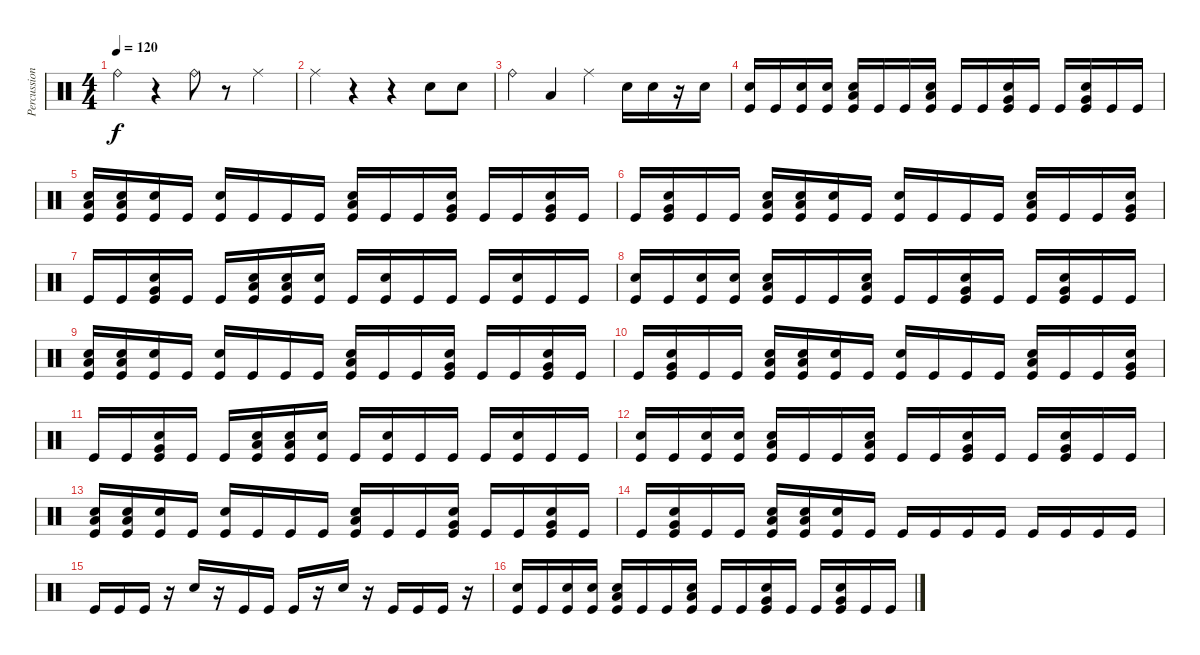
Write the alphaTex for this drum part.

\track ("Percussion" "Percussion") {instrument percussion}
\staff {score}
\articulation defaults
\ts (4 4)
\tempo 120
\clef neutral
\ks c "Ride (bell)".4{dy f}
r.4 "Ride (bell)".8 r.8 "Ride (middle)".4 |
"Ride (middle)".4 r.4 r.4 "Electric Snare (hit)".8 "Electric Snare (hit)".8 |
"Ride (bell)".4 "Low Tom (hit)".4 "Ride (middle)".4 "Electric Snare (hit)".16 "Electric Snare (hit)".16 r.16 "Electric Snare (hit)".16 |
("Electric Snare (hit)" "Kick (hit)").16 "Kick (hit)".16 ("Electric Snare (hit)" "Kick (hit)").16 ("Electric Snare (hit)" "Kick (hit)").16 ("Low Tom (hit)" "Electric Snare (hit)" "Kick (hit)").16 "Kick (hit)".16 "Kick (hit)".16 ("Low Tom (hit)" "Electric Snare (hit)" "Kick (hit)").16 "Kick (hit)".16 "Kick (hit)".16 ("Very Low Tom (hit)" "Electric Snare (hit)" "Kick (hit)").16 "Kick (hit)".16 "Kick (hit)".16 ("Very Low Tom (hit)" "Electric Snare (hit)" "Kick (hit)").16 "Kick (hit)".16 "Kick (hit)".16 |
("Low Tom (hit)" "Electric Snare (hit)" "Kick (hit)").16 ("Low Tom (hit)" "Electric Snare (hit)" "Kick (hit)").16 ("Electric Snare (hit)" "Kick (hit)").16 "Kick (hit)".16 ("Electric Snare (hit)" "Kick (hit)").16 "Kick (hit)".16 "Kick (hit)".16 "Kick (hit)".16 ("Low Tom (hit)" "Electric Snare (hit)" "Kick (hit)").16 "Kick (hit)".16 "Kick (hit)".16 ("Very Low Tom (hit)" "Electric Snare (hit)" "Kick (hit)").16 "Kick (hit)".16 "Kick (hit)".16 ("Very Low Tom (hit)" "Electric Snare (hit)" "Kick (hit)").16 "Kick (hit)".16 |
"Kick (hit)".16 ("Very Low Tom (hit)" "Electric Snare (hit)" "Kick (hit)").16 "Kick (hit)".16 "Kick (hit)".16 ("Low Tom (hit)" "Electric Snare (hit)" "Kick (hit)").16 ("Low Tom (hit)" "Electric Snare (hit)" "Kick (hit)").16 ("Electric Snare (hit)" "Kick (hit)").16 "Kick (hit)".16 ("Electric Snare (hit)" "Kick (hit)").16 "Kick (hit)".16 "Kick (hit)".16 "Kick (hit)".16 ("Low Tom (hit)" "Electric Snare (hit)" "Kick (hit)").16 "Kick (hit)".16 "Kick (hit)".16 ("Very Low Tom (hit)" "Electric Snare (hit)" "Kick (hit)").16 |
"Kick (hit)".16 "Kick (hit)".16 ("Very Low Tom (hit)" "Electric Snare (hit)" "Kick (hit)").16 "Kick (hit)".16 "Kick (hit)".16 ("Low Tom (hit)" "Electric Snare (hit)" "Kick (hit)").16 ("Low Tom (hit)" "Electric Snare (hit)" "Kick (hit)").16 ("Electric Snare (hit)" "Kick (hit)").16 "Kick (hit)".16 ("Electric Snare (hit)" "Kick (hit)").16 "Kick (hit)".16 "Kick (hit)".16 "Kick (hit)".16 ("Electric Snare (hit)" "Kick (hit)").16 "Kick (hit)".16 "Kick (hit)".16 |
("Electric Snare (hit)" "Kick (hit)").16 "Kick (hit)".16 ("Electric Snare (hit)" "Kick (hit)").16 ("Electric Snare (hit)" "Kick (hit)").16 ("Low Tom (hit)" "Electric Snare (hit)" "Kick (hit)").16 "Kick (hit)".16 "Kick (hit)".16 ("Low Tom (hit)" "Electric Snare (hit)" "Kick (hit)").16 "Kick (hit)".16 "Kick (hit)".16 ("Very Low Tom (hit)" "Electric Snare (hit)" "Kick (hit)").16 "Kick (hit)".16 "Kick (hit)".16 ("Very Low Tom (hit)" "Electric Snare (hit)" "Kick (hit)").16 "Kick (hit)".16 "Kick (hit)".16 |
("Low Tom (hit)" "Electric Snare (hit)" "Kick (hit)").16 ("Low Tom (hit)" "Electric Snare (hit)" "Kick (hit)").16 ("Electric Snare (hit)" "Kick (hit)").16 "Kick (hit)".16 ("Electric Snare (hit)" "Kick (hit)").16 "Kick (hit)".16 "Kick (hit)".16 "Kick (hit)".16 ("Low Tom (hit)" "Electric Snare (hit)" "Kick (hit)").16 "Kick (hit)".16 "Kick (hit)".16 ("Very Low Tom (hit)" "Electric Snare (hit)" "Kick (hit)").16 "Kick (hit)".16 "Kick (hit)".16 ("Very Low Tom (hit)" "Electric Snare (hit)" "Kick (hit)").16 "Kick (hit)".16 |
"Kick (hit)".16 ("Very Low Tom (hit)" "Electric Snare (hit)" "Kick (hit)").16 "Kick (hit)".16 "Kick (hit)".16 ("Low Tom (hit)" "Electric Snare (hit)" "Kick (hit)").16 ("Low Tom (hit)" "Electric Snare (hit)" "Kick (hit)").16 ("Electric Snare (hit)" "Kick (hit)").16 "Kick (hit)".16 ("Electric Snare (hit)" "Kick (hit)").16 "Kick (hit)".16 "Kick (hit)".16 "Kick (hit)".16 ("Low Tom (hit)" "Electric Snare (hit)" "Kick (hit)").16 "Kick (hit)".16 "Kick (hit)".16 ("Very Low Tom (hit)" "Electric Snare (hit)" "Kick (hit)").16 |
"Kick (hit)".16 "Kick (hit)".16 ("Very Low Tom (hit)" "Electric Snare (hit)" "Kick (hit)").16 "Kick (hit)".16 "Kick (hit)".16 ("Low Tom (hit)" "Electric Snare (hit)" "Kick (hit)").16 ("Low Tom (hit)" "Electric Snare (hit)" "Kick (hit)").16 ("Electric Snare (hit)" "Kick (hit)").16 "Kick (hit)".16 ("Electric Snare (hit)" "Kick (hit)").16 "Kick (hit)".16 "Kick (hit)".16 "Kick (hit)".16 ("Electric Snare (hit)" "Kick (hit)").16 "Kick (hit)".16 "Kick (hit)".16 |
("Electric Snare (hit)" "Kick (hit)").16 "Kick (hit)".16 ("Electric Snare (hit)" "Kick (hit)").16 ("Electric Snare (hit)" "Kick (hit)").16 ("Low Tom (hit)" "Electric Snare (hit)" "Kick (hit)").16 "Kick (hit)".16 "Kick (hit)".16 ("Low Tom (hit)" "Electric Snare (hit)" "Kick (hit)").16 "Kick (hit)".16 "Kick (hit)".16 ("Very Low Tom (hit)" "Electric Snare (hit)" "Kick (hit)").16 "Kick (hit)".16 "Kick (hit)".16 ("Very Low Tom (hit)" "Electric Snare (hit)" "Kick (hit)").16 "Kick (hit)".16 "Kick (hit)".16 |
("Low Tom (hit)" "Electric Snare (hit)" "Kick (hit)").16 ("Low Tom (hit)" "Electric Snare (hit)" "Kick (hit)").16 ("Electric Snare (hit)" "Kick (hit)").16 "Kick (hit)".16 ("Electric Snare (hit)" "Kick (hit)").16 "Kick (hit)".16 "Kick (hit)".16 "Kick (hit)".16 ("Low Tom (hit)" "Electric Snare (hit)" "Kick (hit)").16 "Kick (hit)".16 "Kick (hit)".16 ("Very Low Tom (hit)" "Electric Snare (hit)" "Kick (hit)").16 "Kick (hit)".16 "Kick (hit)".16 ("Very Low Tom (hit)" "Electric Snare (hit)" "Kick (hit)").16 "Kick (hit)".16 |
"Kick (hit)".16 ("Very Low Tom (hit)" "Electric Snare (hit)" "Kick (hit)").16 "Kick (hit)".16 "Kick (hit)".16 ("Low Tom (hit)" "Electric Snare (hit)" "Kick (hit)").16 ("Low Tom (hit)" "Electric Snare (hit)" "Kick (hit)").16 ("Electric Snare (hit)" "Kick (hit)").16 "Kick (hit)".16 "Kick (hit)".16 "Kick (hit)".16 "Kick (hit)".16 "Kick (hit)".16 "Kick (hit)".16 "Kick (hit)".16 "Kick (hit)".16 "Kick (hit)".16 |
"Kick (hit)".16 "Kick (hit)".16 "Kick (hit)".16 r.16 "Electric Snare (hit)".16 r.16 "Kick (hit)".16 "Kick (hit)".16 "Kick (hit)".16 r.16 "Electric Snare (hit)".16 r.16 "Kick (hit)".16 "Kick (hit)".16 "Kick (hit)".16 r.16 |
("Electric Snare (hit)" "Kick (hit)").16 "Kick (hit)".16 ("Electric Snare (hit)" "Kick (hit)").16 ("Electric Snare (hit)" "Kick (hit)").16 ("Low Tom (hit)" "Electric Snare (hit)" "Kick (hit)").16 "Kick (hit)".16 "Kick (hit)".16 ("Low Tom (hit)" "Electric Snare (hit)" "Kick (hit)").16 "Kick (hit)".16 "Kick (hit)".16 ("Very Low Tom (hit)" "Electric Snare (hit)" "Kick (hit)").16 "Kick (hit)".16 "Kick (hit)".16 ("Very Low Tom (hit)" "Electric Snare (hit)" "Kick (hit)").16 "Kick (hit)".16 "Kick (hit)".16
